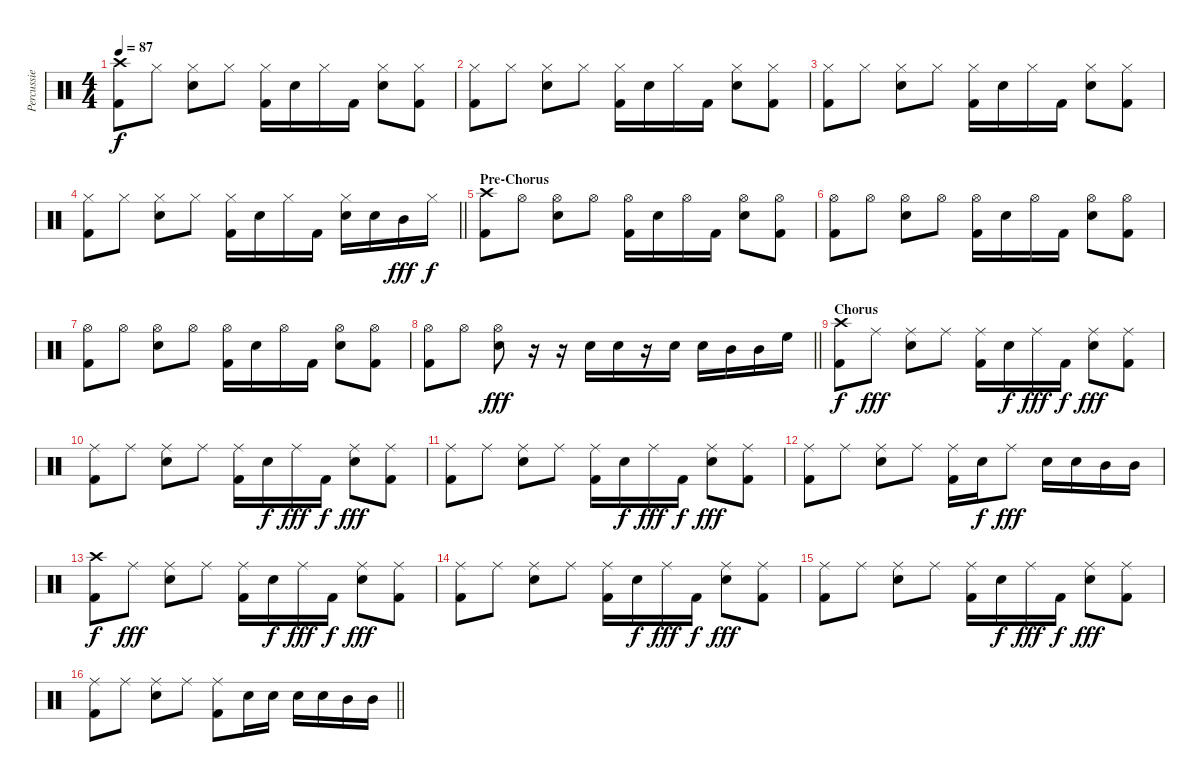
\track ("Percussie" "Percussie") {instrument percussion}
\staff {score}
\articulation defaults
\ts (4 4)
\tempo 87
\clef neutral
\ks c
("Crash high (hit)" "Kick (hit) 2").8{dy f} "Hi-Hat (closed)".8 ("Hi-Hat (closed)" "Snare (hit) 2").8 "Hi-Hat (closed)".8 ("Hi-Hat (closed)" "Kick (hit) 2").16 "Snare (hit) 2".16 "Hi-Hat (closed)".16 "Kick (hit) 2".16 ("Hi-Hat (closed)" "Snare (hit) 2").8 ("Hi-Hat (closed)" "Kick (hit) 2").8 |
("Hi-Hat (closed)" "Kick (hit) 2").8 "Hi-Hat (closed)".8 ("Hi-Hat (closed)" "Snare (hit) 2").8 "Hi-Hat (closed)".8 ("Hi-Hat (closed)" "Kick (hit) 2").16 "Snare (hit) 2".16 "Hi-Hat (closed)".16 "Kick (hit) 2".16 ("Hi-Hat (closed)" "Snare (hit) 2").8 ("Hi-Hat (closed)" "Kick (hit) 2").8 |
("Hi-Hat (closed)" "Kick (hit) 2").8 "Hi-Hat (closed)".8 ("Hi-Hat (closed)" "Snare (hit) 2").8 "Hi-Hat (closed)".8 ("Hi-Hat (closed)" "Kick (hit) 2").16 "Snare (hit) 2".16 "Hi-Hat (closed)".16 "Kick (hit) 2".16 ("Hi-Hat (closed)" "Snare (hit) 2").8 ("Hi-Hat (closed)" "Kick (hit) 2").8 |
\barLineRight lightlight
("Hi-Hat (closed)" "Kick (hit) 2").8 "Hi-Hat (closed)".8 ("Hi-Hat (closed)" "Snare (hit) 2").8 "Hi-Hat (closed)".8 ("Hi-Hat (closed)" "Kick (hit) 2").16 "Snare (hit) 2".16 "Hi-Hat (closed)".16 "Kick (hit) 2".16 ("Hi-Hat (closed)" "Snare (hit) 2").16 "Snare (hit) 2".16 "Mid Tom (hit)".16{dy fff} "Hi-Hat (closed)".16{dy f} |
\section ("" "Pre-Chorus")
("Crash high (hit)" "Kick (hit) 2").8 "Hi-Hat (open)".8 ("Hi-Hat (open)" "Snare (hit) 2").8 "Hi-Hat (open)".8 ("Hi-Hat (open)" "Kick (hit) 2").16 "Snare (hit) 2".16 "Hi-Hat (open)".16 "Kick (hit) 2".16 ("Hi-Hat (open)" "Snare (hit) 2").8 ("Hi-Hat (open)" "Kick (hit) 2").8 |
("Hi-Hat (open)" "Kick (hit) 2").8 "Hi-Hat (open)".8 ("Hi-Hat (open)" "Snare (hit) 2").8 "Hi-Hat (open)".8 ("Hi-Hat (open)" "Kick (hit) 2").16 "Snare (hit) 2".16 "Hi-Hat (open)".16 "Kick (hit) 2".16 ("Hi-Hat (open)" "Snare (hit) 2").8 ("Hi-Hat (open)" "Kick (hit) 2").8 |
("Hi-Hat (open)" "Kick (hit) 2").8 "Hi-Hat (open)".8 ("Hi-Hat (open)" "Snare (hit) 2").8 "Hi-Hat (open)".8 ("Hi-Hat (open)" "Kick (hit) 2").16 "Snare (hit) 2".16 "Hi-Hat (open)".16 "Kick (hit) 2".16 ("Hi-Hat (open)" "Snare (hit) 2").8 ("Hi-Hat (open)" "Kick (hit) 2").8 |
\barLineRight lightlight
("Hi-Hat (open)" "Kick (hit) 2").8 "Hi-Hat (open)".8 ("Hi-Hat (open)" "Snare (hit) 2").8{dy fff} r.16 r.16 "Snare (hit) 2".16 "Snare (hit) 2".16 r.16 "Snare (hit) 2".16 "Snare (hit) 2".16 "Mid Tom (hit)".16 "Mid Tom (hit)".16 "High Floor Tom (hit)".16 |
\section ("" "Chorus")
("Crash high (hit)" "Kick (hit) 2").8{dy f} "Ride (middle)".8{dy fff} ("Ride (middle)" "Snare (hit) 2").8 "Ride (middle)".8 ("Ride (middle)" "Kick (hit) 2").16 "Snare (hit) 2".16{dy f} "Ride (middle)".16{dy fff} "Kick (hit) 2".16{dy f} ("Ride (middle)" "Snare (hit) 2").8{dy fff} ("Ride (middle)" "Kick (hit) 2").8 |
("Ride (middle)" "Kick (hit) 2").8 "Ride (middle)".8 ("Ride (middle)" "Snare (hit) 2").8 "Ride (middle)".8 ("Ride (middle)" "Kick (hit) 2").16 "Snare (hit) 2".16{dy f} "Ride (middle)".16{dy fff} "Kick (hit) 2".16{dy f} ("Ride (middle)" "Snare (hit) 2").8{dy fff} ("Ride (middle)" "Kick (hit) 2").8 |
("Ride (middle)" "Kick (hit) 2").8 "Ride (middle)".8 ("Ride (middle)" "Snare (hit) 2").8 "Ride (middle)".8 ("Ride (middle)" "Kick (hit) 2").16 "Snare (hit) 2".16{dy f} "Ride (middle)".16{dy fff} "Kick (hit) 2".16{dy f} ("Ride (middle)" "Snare (hit) 2").8{dy fff} ("Ride (middle)" "Kick (hit) 2").8 |
("Ride (middle)" "Kick (hit) 2").8 "Ride (middle)".8 ("Ride (middle)" "Snare (hit) 2").8 "Ride (middle)".8 ("Ride (middle)" "Kick (hit) 2").16 "Snare (hit) 2".16{dy f} "Ride (middle)".8{dy fff} "Snare (hit) 2".16 "Snare (hit) 2".16 "Mid Tom (hit)".16 "Mid Tom (hit)".16 |
("Crash high (hit)" "Kick (hit) 2").8{dy f} "Ride (middle)".8{dy fff} ("Ride (middle)" "Snare (hit) 2").8 "Ride (middle)".8 ("Ride (middle)" "Kick (hit) 2").16 "Snare (hit) 2".16{dy f} "Ride (middle)".16{dy fff} "Kick (hit) 2".16{dy f} ("Ride (middle)" "Snare (hit) 2").8{dy fff} ("Ride (middle)" "Kick (hit) 2").8 |
("Ride (middle)" "Kick (hit) 2").8 "Ride (middle)".8 ("Ride (middle)" "Snare (hit) 2").8 "Ride (middle)".8 ("Ride (middle)" "Kick (hit) 2").16 "Snare (hit) 2".16{dy f} "Ride (middle)".16{dy fff} "Kick (hit) 2".16{dy f} ("Ride (middle)" "Snare (hit) 2").8{dy fff} ("Ride (middle)" "Kick (hit) 2").8 |
("Ride (middle)" "Kick (hit) 2").8 "Ride (middle)".8 ("Ride (middle)" "Snare (hit) 2").8 "Ride (middle)".8 ("Ride (middle)" "Kick (hit) 2").16 "Snare (hit) 2".16{dy f} "Ride (middle)".16{dy fff} "Kick (hit) 2".16{dy f} ("Ride (middle)" "Snare (hit) 2").8{dy fff} ("Ride (middle)" "Kick (hit) 2").8 |
\barLineRight lightlight
("Ride (middle)" "Kick (hit) 2").8 "Ride (middle)".8 ("Ride (middle)" "Snare (hit) 2").8 "Ride (middle)".8 ("Ride (middle)" "Kick (hit) 2").8 "Snare (hit) 2".16 "Snare (hit) 2".16 "Snare (hit) 2".16 "Snare (hit) 2".16 "Mid Tom (hit)".16 "Mid Tom (hit)".16
